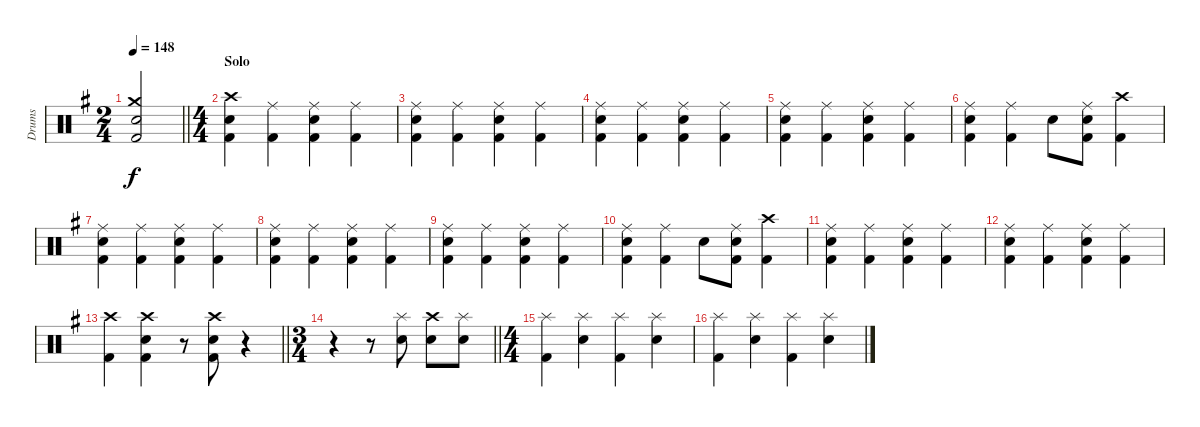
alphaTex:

\track ("Drums" "Drums") {instrument percussion}
\staff {score}
\articulation defaults
\ts (2 4)
\tempo 148
\clef neutral
\barLineRight lightlight
\ks g
("Kick (hit) 2" "Crash medium (hit)" "Snare (hit) 2").2{dy f} |
\ts (4 4)
\section ("" "Solo")
("Kick (hit) 2" "Crash high (hit)" "Snare (hit) 2").4 ("Kick (hit) 2" "Ride (middle)").4 ("Kick (hit) 2" "Ride (middle)" "Snare (hit) 2").4 ("Kick (hit) 2" "Ride (middle)").4 |
("Kick (hit) 2" "Ride (middle)" "Snare (hit) 2").4 ("Kick (hit) 2" "Ride (middle)").4 ("Kick (hit) 2" "Ride (middle)" "Snare (hit) 2").4 ("Kick (hit) 2" "Ride (middle)").4 |
("Kick (hit) 2" "Ride (middle)" "Snare (hit) 2").4 ("Kick (hit) 2" "Ride (middle)").4 ("Kick (hit) 2" "Ride (middle)" "Snare (hit) 2").4 ("Kick (hit) 2" "Ride (middle)").4 |
("Kick (hit) 2" "Ride (middle)" "Snare (hit) 2").4 ("Kick (hit) 2" "Ride (middle)").4 ("Kick (hit) 2" "Ride (middle)" "Snare (hit) 2").4 ("Kick (hit) 2" "Ride (middle)").4 |
("Kick (hit) 2" "Ride (middle)" "Snare (hit) 2").4 ("Kick (hit) 2" "Ride (middle)").4 "Snare (hit) 2".8 ("Kick (hit) 2" "Ride (middle)" "Snare (hit) 2").8 ("Kick (hit) 2" "Crash high (hit)").4 |
("Kick (hit) 2" "Ride (middle)" "Snare (hit) 2").4 ("Kick (hit) 2" "Ride (middle)").4 ("Kick (hit) 2" "Ride (middle)" "Snare (hit) 2").4 ("Kick (hit) 2" "Ride (middle)").4 |
("Kick (hit) 2" "Ride (middle)" "Snare (hit) 2").4 ("Kick (hit) 2" "Ride (middle)").4 ("Kick (hit) 2" "Ride (middle)" "Snare (hit) 2").4 ("Kick (hit) 2" "Ride (middle)").4 |
("Kick (hit) 2" "Ride (middle)" "Snare (hit) 2").4 ("Kick (hit) 2" "Ride (middle)").4 ("Kick (hit) 2" "Ride (middle)" "Snare (hit) 2").4 ("Kick (hit) 2" "Ride (middle)").4 |
("Kick (hit) 2" "Ride (middle)" "Snare (hit) 2").4 ("Kick (hit) 2" "Ride (middle)").4 "Snare (hit) 2".8 ("Kick (hit) 2" "Ride (middle)" "Snare (hit) 2").8 ("Kick (hit) 2" "Crash high (hit)").4 |
("Kick (hit) 2" "Ride (middle)" "Snare (hit) 2").4 ("Kick (hit) 2" "Ride (middle)").4 ("Kick (hit) 2" "Ride (middle)" "Snare (hit) 2").4 ("Kick (hit) 2" "Ride (middle)").4 |
("Kick (hit) 2" "Ride (middle)" "Snare (hit) 2").4 ("Kick (hit) 2" "Ride (middle)").4 ("Kick (hit) 2" "Ride (middle)" "Snare (hit) 2").4 ("Kick (hit) 2" "Ride (middle)").4 |
\barLineRight lightlight
("Kick (hit) 2" "Crash high (hit)").4 ("Snare (hit) 2" "Crash high (hit)" "Kick (hit) 2").4 r.8 ("Snare (hit) 2" "Crash high (hit)" "Kick (hit) 2").8 r.4 |
\ts (3 4)
\barLineRight lightlight
r.4 r.8 ("Snare (hit) 2" "Splash (hit)").8 ("Snare (hit) 2" "Crash high (hit)").8 ("Snare (hit) 2" "Splash (hit)").8 |
\ts (4 4)
("Kick (hit) 2" "Splash (hit)").4 ("Snare (hit) 2" "Splash (hit)").4 ("Kick (hit) 2" "Splash (hit)").4 ("Snare (hit) 2" "Splash (hit)").4 |
("Kick (hit) 2" "Splash (hit)").4 ("Snare (hit) 2" "Splash (hit)").4 ("Kick (hit) 2" "Splash (hit)").4 ("Snare (hit) 2" "Splash (hit)").4
